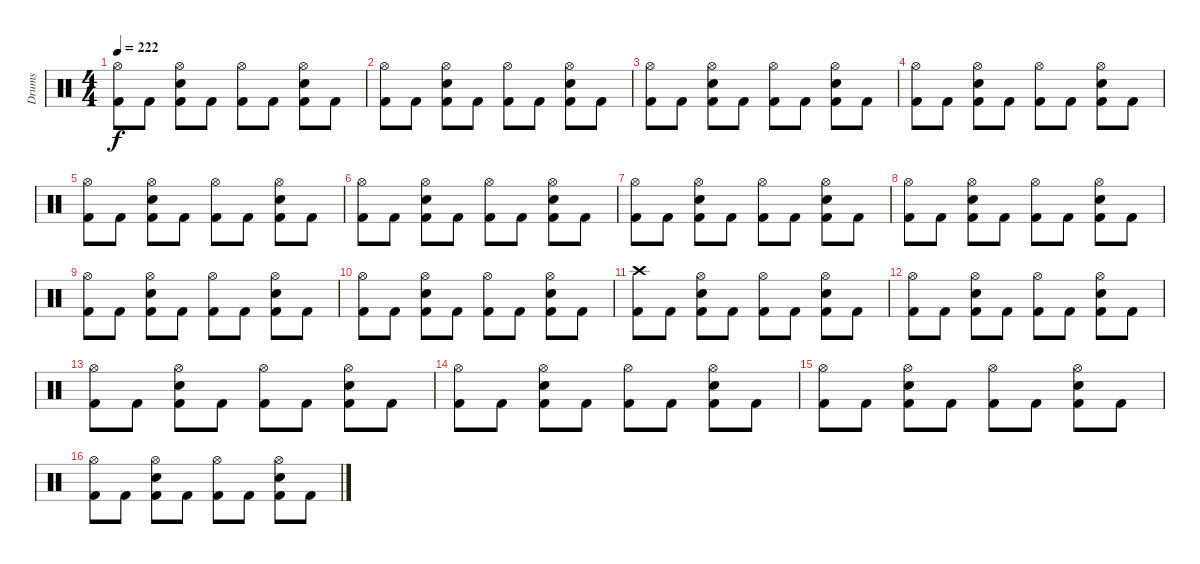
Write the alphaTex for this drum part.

\track ("Drums" "Drums") {instrument percussion}
\staff {score}
\articulation defaults
\ts (4 4)
\tempo 222
\clef neutral
\ks c
("Hi-Hat (open)" "Kick (hit) 2").8{dy f} "Kick (hit) 2".8 ("Hi-Hat (open)" "Electric Snare (hit)" "Kick (hit) 2").8 "Kick (hit) 2".8 ("Hi-Hat (open)" "Kick (hit) 2").8 "Kick (hit) 2".8 ("Hi-Hat (open)" "Electric Snare (hit)" "Kick (hit) 2").8 "Kick (hit) 2".8 |
("Hi-Hat (open)" "Kick (hit) 2").8 "Kick (hit) 2".8 ("Hi-Hat (open)" "Electric Snare (hit)" "Kick (hit) 2").8 "Kick (hit) 2".8 ("Hi-Hat (open)" "Kick (hit) 2").8 "Kick (hit) 2".8 ("Hi-Hat (open)" "Electric Snare (hit)" "Kick (hit) 2").8 "Kick (hit) 2".8 |
("Hi-Hat (open)" "Kick (hit) 2").8 "Kick (hit) 2".8 ("Hi-Hat (open)" "Electric Snare (hit)" "Kick (hit) 2").8 "Kick (hit) 2".8 ("Hi-Hat (open)" "Kick (hit) 2").8 "Kick (hit) 2".8 ("Hi-Hat (open)" "Electric Snare (hit)" "Kick (hit) 2").8 "Kick (hit) 2".8 |
("Hi-Hat (open)" "Kick (hit) 2").8 "Kick (hit) 2".8 ("Hi-Hat (open)" "Electric Snare (hit)" "Kick (hit) 2").8 "Kick (hit) 2".8 ("Hi-Hat (open)" "Kick (hit) 2").8 "Kick (hit) 2".8 ("Hi-Hat (open)" "Electric Snare (hit)" "Kick (hit) 2").8 "Kick (hit) 2".8 |
("Hi-Hat (open)" "Kick (hit) 2").8 "Kick (hit) 2".8 ("Hi-Hat (open)" "Electric Snare (hit)" "Kick (hit) 2").8 "Kick (hit) 2".8 ("Hi-Hat (open)" "Kick (hit) 2").8 "Kick (hit) 2".8 ("Hi-Hat (open)" "Electric Snare (hit)" "Kick (hit) 2").8 "Kick (hit) 2".8 |
("Hi-Hat (open)" "Kick (hit) 2").8 "Kick (hit) 2".8 ("Hi-Hat (open)" "Electric Snare (hit)" "Kick (hit) 2").8 "Kick (hit) 2".8 ("Hi-Hat (open)" "Kick (hit) 2").8 "Kick (hit) 2".8 ("Hi-Hat (open)" "Electric Snare (hit)" "Kick (hit) 2").8 "Kick (hit) 2".8 |
("Hi-Hat (open)" "Kick (hit) 2").8 "Kick (hit) 2".8 ("Hi-Hat (open)" "Electric Snare (hit)" "Kick (hit) 2").8 "Kick (hit) 2".8 ("Hi-Hat (open)" "Kick (hit) 2").8 "Kick (hit) 2".8 ("Hi-Hat (open)" "Electric Snare (hit)" "Kick (hit) 2").8 "Kick (hit) 2".8 |
("Hi-Hat (open)" "Kick (hit) 2").8 "Kick (hit) 2".8 ("Hi-Hat (open)" "Electric Snare (hit)" "Kick (hit) 2").8 "Kick (hit) 2".8 ("Hi-Hat (open)" "Kick (hit) 2").8 "Kick (hit) 2".8 ("Hi-Hat (open)" "Electric Snare (hit)" "Kick (hit) 2").8 "Kick (hit) 2".8 |
("Hi-Hat (open)" "Kick (hit) 2").8 "Kick (hit) 2".8 ("Hi-Hat (open)" "Electric Snare (hit)" "Kick (hit) 2").8 "Kick (hit) 2".8 ("Hi-Hat (open)" "Kick (hit) 2").8 "Kick (hit) 2".8 ("Hi-Hat (open)" "Electric Snare (hit)" "Kick (hit) 2").8 "Kick (hit) 2".8 |
("Hi-Hat (open)" "Kick (hit) 2").8 "Kick (hit) 2".8 ("Hi-Hat (open)" "Electric Snare (hit)" "Kick (hit) 2").8 "Kick (hit) 2".8 ("Hi-Hat (open)" "Kick (hit) 2").8 "Kick (hit) 2".8 ("Hi-Hat (open)" "Electric Snare (hit)" "Kick (hit) 2").8 "Kick (hit) 2".8 |
("Crash high (hit)" "Kick (hit) 2").8 "Kick (hit) 2".8 ("Hi-Hat (open)" "Electric Snare (hit)" "Kick (hit) 2").8 "Kick (hit) 2".8 ("Hi-Hat (open)" "Kick (hit) 2").8 "Kick (hit) 2".8 ("Hi-Hat (open)" "Electric Snare (hit)" "Kick (hit) 2").8 "Kick (hit) 2".8 |
("Hi-Hat (open)" "Kick (hit) 2").8 "Kick (hit) 2".8 ("Hi-Hat (open)" "Electric Snare (hit)" "Kick (hit) 2").8 "Kick (hit) 2".8 ("Hi-Hat (open)" "Kick (hit) 2").8 "Kick (hit) 2".8 ("Hi-Hat (open)" "Electric Snare (hit)" "Kick (hit) 2").8 "Kick (hit) 2".8 |
("Hi-Hat (open)" "Kick (hit) 2").8 "Kick (hit) 2".8 ("Hi-Hat (open)" "Electric Snare (hit)" "Kick (hit) 2").8 "Kick (hit) 2".8 ("Hi-Hat (open)" "Kick (hit) 2").8 "Kick (hit) 2".8 ("Hi-Hat (open)" "Electric Snare (hit)" "Kick (hit) 2").8 "Kick (hit) 2".8 |
("Hi-Hat (open)" "Kick (hit) 2").8 "Kick (hit) 2".8 ("Hi-Hat (open)" "Electric Snare (hit)" "Kick (hit) 2").8 "Kick (hit) 2".8 ("Hi-Hat (open)" "Kick (hit) 2").8 "Kick (hit) 2".8 ("Hi-Hat (open)" "Electric Snare (hit)" "Kick (hit) 2").8 "Kick (hit) 2".8 |
("Hi-Hat (open)" "Kick (hit) 2").8 "Kick (hit) 2".8 ("Hi-Hat (open)" "Electric Snare (hit)" "Kick (hit) 2").8 "Kick (hit) 2".8 ("Hi-Hat (open)" "Kick (hit) 2").8 "Kick (hit) 2".8 ("Hi-Hat (open)" "Electric Snare (hit)" "Kick (hit) 2").8 "Kick (hit) 2".8 |
("Hi-Hat (open)" "Kick (hit) 2").8 "Kick (hit) 2".8 ("Hi-Hat (open)" "Electric Snare (hit)" "Kick (hit) 2").8 "Kick (hit) 2".8 ("Hi-Hat (open)" "Kick (hit) 2").8 "Kick (hit) 2".8 ("Hi-Hat (open)" "Electric Snare (hit)" "Kick (hit) 2").8 "Kick (hit) 2".8
